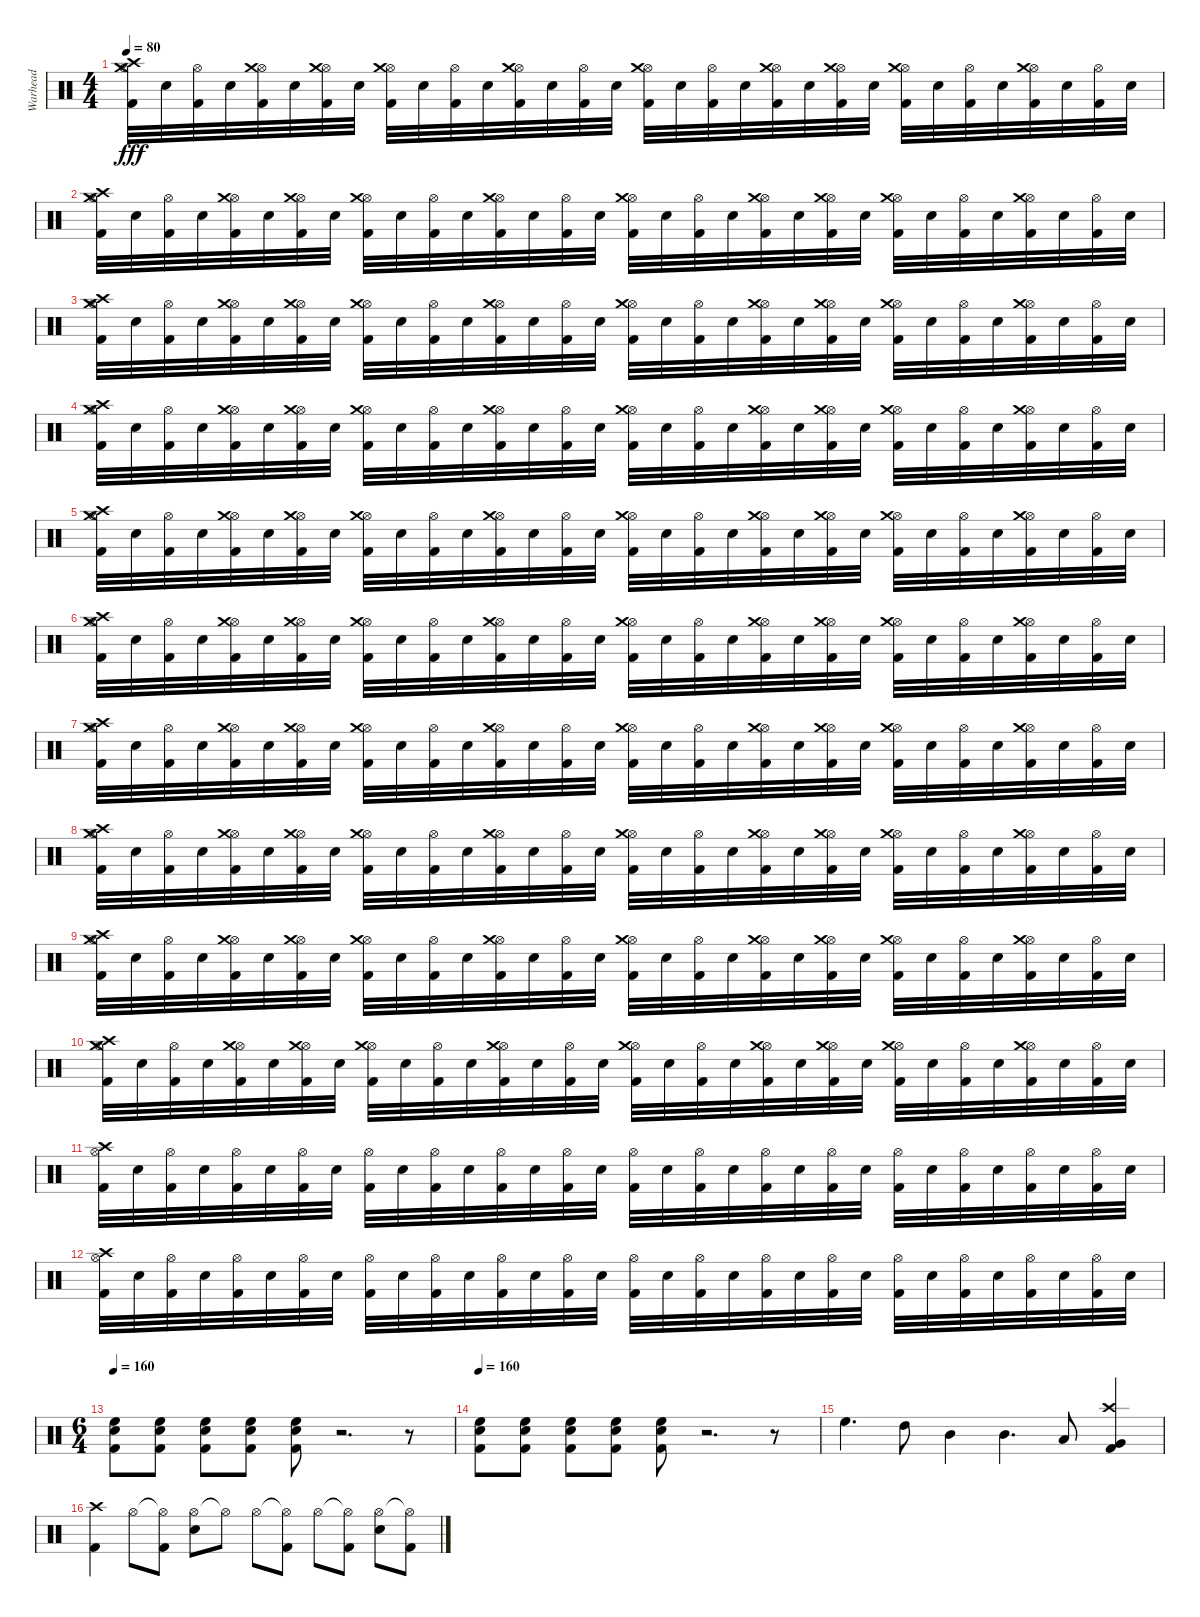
\track ("Warhead" "Warhead") {instrument percussion}
\staff {score}
\articulation defaults
\ts (4 4)
\tempo 80
\clef neutral
\ks c
("Kick (hit) 2" "Crash high (hit)" "Hi-Hat (open)" "Crash medium (hit)").32{dy fff} "Electric Snare (hit)".32 ("Kick (hit) 2" "Hi-Hat (open)").32 "Electric Snare (hit)".32 ("Kick (hit) 2" "Hi-Hat (open)" "Crash medium (hit)").32 "Electric Snare (hit)".32 ("Kick (hit) 2" "Hi-Hat (open)" "Crash medium (hit)").32 "Electric Snare (hit)".32 ("Kick (hit) 2" "Hi-Hat (open)" "Crash medium (hit)").32 "Electric Snare (hit)".32 ("Kick (hit) 2" "Hi-Hat (open)").32 "Electric Snare (hit)".32 ("Kick (hit) 2" "Hi-Hat (open)" "Crash medium (hit)").32 "Electric Snare (hit)".32 ("Kick (hit) 2" "Hi-Hat (open)").32 "Electric Snare (hit)".32 ("Kick (hit) 2" "Hi-Hat (open)" "Crash medium (hit)").32 "Electric Snare (hit)".32 ("Kick (hit) 2" "Hi-Hat (open)").32 "Electric Snare (hit)".32 ("Kick (hit) 2" "Hi-Hat (open)" "Crash medium (hit)").32 "Electric Snare (hit)".32 ("Kick (hit) 2" "Hi-Hat (open)" "Crash medium (hit)").32 "Electric Snare (hit)".32 ("Kick (hit) 2" "Hi-Hat (open)" "Crash medium (hit)").32 "Electric Snare (hit)".32 ("Kick (hit) 2" "Hi-Hat (open)").32 "Electric Snare (hit)".32 ("Kick (hit) 2" "Hi-Hat (open)" "Crash medium (hit)").32 "Electric Snare (hit)".32 ("Kick (hit) 2" "Hi-Hat (open)").32 "Electric Snare (hit)".32 |
("Kick (hit) 2" "Crash high (hit)" "Hi-Hat (open)" "Crash medium (hit)").32 "Electric Snare (hit)".32 ("Kick (hit) 2" "Hi-Hat (open)").32 "Electric Snare (hit)".32 ("Kick (hit) 2" "Hi-Hat (open)" "Crash medium (hit)").32 "Electric Snare (hit)".32 ("Kick (hit) 2" "Hi-Hat (open)" "Crash medium (hit)").32 "Electric Snare (hit)".32 ("Kick (hit) 2" "Hi-Hat (open)" "Crash medium (hit)").32 "Electric Snare (hit)".32 ("Kick (hit) 2" "Hi-Hat (open)").32 "Electric Snare (hit)".32 ("Kick (hit) 2" "Hi-Hat (open)" "Crash medium (hit)").32 "Electric Snare (hit)".32 ("Kick (hit) 2" "Hi-Hat (open)").32 "Electric Snare (hit)".32 ("Kick (hit) 2" "Hi-Hat (open)" "Crash medium (hit)").32 "Electric Snare (hit)".32 ("Kick (hit) 2" "Hi-Hat (open)").32 "Electric Snare (hit)".32 ("Kick (hit) 2" "Hi-Hat (open)" "Crash medium (hit)").32 "Electric Snare (hit)".32 ("Kick (hit) 2" "Hi-Hat (open)" "Crash medium (hit)").32 "Electric Snare (hit)".32 ("Kick (hit) 2" "Hi-Hat (open)" "Crash medium (hit)").32 "Electric Snare (hit)".32 ("Kick (hit) 2" "Hi-Hat (open)").32 "Electric Snare (hit)".32 ("Kick (hit) 2" "Hi-Hat (open)" "Crash medium (hit)").32 "Electric Snare (hit)".32 ("Kick (hit) 2" "Hi-Hat (open)").32 "Electric Snare (hit)".32 |
("Kick (hit) 2" "Crash high (hit)" "Hi-Hat (open)" "Crash medium (hit)").32 "Electric Snare (hit)".32 ("Kick (hit) 2" "Hi-Hat (open)").32 "Electric Snare (hit)".32 ("Kick (hit) 2" "Hi-Hat (open)" "Crash medium (hit)").32 "Electric Snare (hit)".32 ("Kick (hit) 2" "Hi-Hat (open)" "Crash medium (hit)").32 "Electric Snare (hit)".32 ("Kick (hit) 2" "Hi-Hat (open)" "Crash medium (hit)").32 "Electric Snare (hit)".32 ("Kick (hit) 2" "Hi-Hat (open)").32 "Electric Snare (hit)".32 ("Kick (hit) 2" "Hi-Hat (open)" "Crash medium (hit)").32 "Electric Snare (hit)".32 ("Kick (hit) 2" "Hi-Hat (open)").32 "Electric Snare (hit)".32 ("Kick (hit) 2" "Hi-Hat (open)" "Crash medium (hit)").32 "Electric Snare (hit)".32 ("Kick (hit) 2" "Hi-Hat (open)").32 "Electric Snare (hit)".32 ("Kick (hit) 2" "Hi-Hat (open)" "Crash medium (hit)").32 "Electric Snare (hit)".32 ("Kick (hit) 2" "Hi-Hat (open)" "Crash medium (hit)").32 "Electric Snare (hit)".32 ("Kick (hit) 2" "Hi-Hat (open)" "Crash medium (hit)").32 "Electric Snare (hit)".32 ("Kick (hit) 2" "Hi-Hat (open)").32 "Electric Snare (hit)".32 ("Kick (hit) 2" "Hi-Hat (open)" "Crash medium (hit)").32 "Electric Snare (hit)".32 ("Kick (hit) 2" "Hi-Hat (open)").32 "Electric Snare (hit)".32 |
("Kick (hit) 2" "Crash high (hit)" "Hi-Hat (open)" "Crash medium (hit)").32 "Electric Snare (hit)".32 ("Kick (hit) 2" "Hi-Hat (open)").32 "Electric Snare (hit)".32 ("Kick (hit) 2" "Hi-Hat (open)" "Crash medium (hit)").32 "Electric Snare (hit)".32 ("Kick (hit) 2" "Hi-Hat (open)" "Crash medium (hit)").32 "Electric Snare (hit)".32 ("Kick (hit) 2" "Hi-Hat (open)" "Crash medium (hit)").32 "Electric Snare (hit)".32 ("Kick (hit) 2" "Hi-Hat (open)").32 "Electric Snare (hit)".32 ("Kick (hit) 2" "Hi-Hat (open)" "Crash medium (hit)").32 "Electric Snare (hit)".32 ("Kick (hit) 2" "Hi-Hat (open)").32 "Electric Snare (hit)".32 ("Kick (hit) 2" "Hi-Hat (open)" "Crash medium (hit)").32 "Electric Snare (hit)".32 ("Kick (hit) 2" "Hi-Hat (open)").32 "Electric Snare (hit)".32 ("Kick (hit) 2" "Hi-Hat (open)" "Crash medium (hit)").32 "Electric Snare (hit)".32 ("Kick (hit) 2" "Hi-Hat (open)" "Crash medium (hit)").32 "Electric Snare (hit)".32 ("Kick (hit) 2" "Hi-Hat (open)" "Crash medium (hit)").32 "Electric Snare (hit)".32 ("Kick (hit) 2" "Hi-Hat (open)").32 "Electric Snare (hit)".32 ("Kick (hit) 2" "Hi-Hat (open)" "Crash medium (hit)").32 "Electric Snare (hit)".32 ("Kick (hit) 2" "Hi-Hat (open)").32 "Electric Snare (hit)".32 |
("Kick (hit) 2" "Crash high (hit)" "Hi-Hat (open)" "Crash medium (hit)").32 "Electric Snare (hit)".32 ("Kick (hit) 2" "Hi-Hat (open)").32 "Electric Snare (hit)".32 ("Kick (hit) 2" "Hi-Hat (open)" "Crash medium (hit)").32 "Electric Snare (hit)".32 ("Kick (hit) 2" "Hi-Hat (open)" "Crash medium (hit)").32 "Electric Snare (hit)".32 ("Kick (hit) 2" "Hi-Hat (open)" "Crash medium (hit)").32 "Electric Snare (hit)".32 ("Kick (hit) 2" "Hi-Hat (open)").32 "Electric Snare (hit)".32 ("Kick (hit) 2" "Hi-Hat (open)" "Crash medium (hit)").32 "Electric Snare (hit)".32 ("Kick (hit) 2" "Hi-Hat (open)").32 "Electric Snare (hit)".32 ("Kick (hit) 2" "Hi-Hat (open)" "Crash medium (hit)").32 "Electric Snare (hit)".32 ("Kick (hit) 2" "Hi-Hat (open)").32 "Electric Snare (hit)".32 ("Kick (hit) 2" "Hi-Hat (open)" "Crash medium (hit)").32 "Electric Snare (hit)".32 ("Kick (hit) 2" "Hi-Hat (open)" "Crash medium (hit)").32 "Electric Snare (hit)".32 ("Kick (hit) 2" "Hi-Hat (open)" "Crash medium (hit)").32 "Electric Snare (hit)".32 ("Kick (hit) 2" "Hi-Hat (open)").32 "Electric Snare (hit)".32 ("Kick (hit) 2" "Hi-Hat (open)" "Crash medium (hit)").32 "Electric Snare (hit)".32 ("Kick (hit) 2" "Hi-Hat (open)").32 "Electric Snare (hit)".32 |
("Kick (hit) 2" "Crash high (hit)" "Hi-Hat (open)" "Crash medium (hit)").32 "Electric Snare (hit)".32 ("Kick (hit) 2" "Hi-Hat (open)").32 "Electric Snare (hit)".32 ("Kick (hit) 2" "Hi-Hat (open)" "Crash medium (hit)").32 "Electric Snare (hit)".32 ("Kick (hit) 2" "Hi-Hat (open)" "Crash medium (hit)").32 "Electric Snare (hit)".32 ("Kick (hit) 2" "Hi-Hat (open)" "Crash medium (hit)").32 "Electric Snare (hit)".32 ("Kick (hit) 2" "Hi-Hat (open)").32 "Electric Snare (hit)".32 ("Kick (hit) 2" "Hi-Hat (open)" "Crash medium (hit)").32 "Electric Snare (hit)".32 ("Kick (hit) 2" "Hi-Hat (open)").32 "Electric Snare (hit)".32 ("Kick (hit) 2" "Hi-Hat (open)" "Crash medium (hit)").32 "Electric Snare (hit)".32 ("Kick (hit) 2" "Hi-Hat (open)").32 "Electric Snare (hit)".32 ("Kick (hit) 2" "Hi-Hat (open)" "Crash medium (hit)").32 "Electric Snare (hit)".32 ("Kick (hit) 2" "Hi-Hat (open)" "Crash medium (hit)").32 "Electric Snare (hit)".32 ("Kick (hit) 2" "Hi-Hat (open)" "Crash medium (hit)").32 "Electric Snare (hit)".32 ("Kick (hit) 2" "Hi-Hat (open)").32 "Electric Snare (hit)".32 ("Kick (hit) 2" "Hi-Hat (open)" "Crash medium (hit)").32 "Electric Snare (hit)".32 ("Kick (hit) 2" "Hi-Hat (open)").32 "Electric Snare (hit)".32 |
("Kick (hit) 2" "Crash high (hit)" "Hi-Hat (open)" "Crash medium (hit)").32 "Electric Snare (hit)".32 ("Kick (hit) 2" "Hi-Hat (open)").32 "Electric Snare (hit)".32 ("Kick (hit) 2" "Hi-Hat (open)" "Crash medium (hit)").32 "Electric Snare (hit)".32 ("Kick (hit) 2" "Hi-Hat (open)" "Crash medium (hit)").32 "Electric Snare (hit)".32 ("Kick (hit) 2" "Hi-Hat (open)" "Crash medium (hit)").32 "Electric Snare (hit)".32 ("Kick (hit) 2" "Hi-Hat (open)").32 "Electric Snare (hit)".32 ("Kick (hit) 2" "Hi-Hat (open)" "Crash medium (hit)").32 "Electric Snare (hit)".32 ("Kick (hit) 2" "Hi-Hat (open)").32 "Electric Snare (hit)".32 ("Kick (hit) 2" "Hi-Hat (open)" "Crash medium (hit)").32 "Electric Snare (hit)".32 ("Kick (hit) 2" "Hi-Hat (open)").32 "Electric Snare (hit)".32 ("Kick (hit) 2" "Hi-Hat (open)" "Crash medium (hit)").32 "Electric Snare (hit)".32 ("Kick (hit) 2" "Hi-Hat (open)" "Crash medium (hit)").32 "Electric Snare (hit)".32 ("Kick (hit) 2" "Hi-Hat (open)" "Crash medium (hit)").32 "Electric Snare (hit)".32 ("Kick (hit) 2" "Hi-Hat (open)").32 "Electric Snare (hit)".32 ("Kick (hit) 2" "Hi-Hat (open)" "Crash medium (hit)").32 "Electric Snare (hit)".32 ("Kick (hit) 2" "Hi-Hat (open)").32 "Electric Snare (hit)".32 |
("Kick (hit) 2" "Crash high (hit)" "Hi-Hat (open)" "Crash medium (hit)").32 "Electric Snare (hit)".32 ("Kick (hit) 2" "Hi-Hat (open)").32 "Electric Snare (hit)".32 ("Kick (hit) 2" "Hi-Hat (open)" "Crash medium (hit)").32 "Electric Snare (hit)".32 ("Kick (hit) 2" "Hi-Hat (open)" "Crash medium (hit)").32 "Electric Snare (hit)".32 ("Kick (hit) 2" "Hi-Hat (open)" "Crash medium (hit)").32 "Electric Snare (hit)".32 ("Kick (hit) 2" "Hi-Hat (open)").32 "Electric Snare (hit)".32 ("Kick (hit) 2" "Hi-Hat (open)" "Crash medium (hit)").32 "Electric Snare (hit)".32 ("Kick (hit) 2" "Hi-Hat (open)").32 "Electric Snare (hit)".32 ("Kick (hit) 2" "Hi-Hat (open)" "Crash medium (hit)").32 "Electric Snare (hit)".32 ("Kick (hit) 2" "Hi-Hat (open)").32 "Electric Snare (hit)".32 ("Kick (hit) 2" "Hi-Hat (open)" "Crash medium (hit)").32 "Electric Snare (hit)".32 ("Kick (hit) 2" "Hi-Hat (open)" "Crash medium (hit)").32 "Electric Snare (hit)".32 ("Kick (hit) 2" "Hi-Hat (open)" "Crash medium (hit)").32 "Electric Snare (hit)".32 ("Kick (hit) 2" "Hi-Hat (open)").32 "Electric Snare (hit)".32 ("Kick (hit) 2" "Hi-Hat (open)" "Crash medium (hit)").32 "Electric Snare (hit)".32 ("Kick (hit) 2" "Hi-Hat (open)").32 "Electric Snare (hit)".32 |
("Kick (hit) 2" "Crash high (hit)" "Hi-Hat (open)" "Crash medium (hit)").32 "Electric Snare (hit)".32 ("Kick (hit) 2" "Hi-Hat (open)").32 "Electric Snare (hit)".32 ("Kick (hit) 2" "Hi-Hat (open)" "Crash medium (hit)").32 "Electric Snare (hit)".32 ("Kick (hit) 2" "Hi-Hat (open)" "Crash medium (hit)").32 "Electric Snare (hit)".32 ("Kick (hit) 2" "Hi-Hat (open)" "Crash medium (hit)").32 "Electric Snare (hit)".32 ("Kick (hit) 2" "Hi-Hat (open)").32 "Electric Snare (hit)".32 ("Kick (hit) 2" "Hi-Hat (open)" "Crash medium (hit)").32 "Electric Snare (hit)".32 ("Kick (hit) 2" "Hi-Hat (open)").32 "Electric Snare (hit)".32 ("Kick (hit) 2" "Hi-Hat (open)" "Crash medium (hit)").32 "Electric Snare (hit)".32 ("Kick (hit) 2" "Hi-Hat (open)").32 "Electric Snare (hit)".32 ("Kick (hit) 2" "Hi-Hat (open)" "Crash medium (hit)").32 "Electric Snare (hit)".32 ("Kick (hit) 2" "Hi-Hat (open)" "Crash medium (hit)").32 "Electric Snare (hit)".32 ("Kick (hit) 2" "Hi-Hat (open)" "Crash medium (hit)").32 "Electric Snare (hit)".32 ("Kick (hit) 2" "Hi-Hat (open)").32 "Electric Snare (hit)".32 ("Kick (hit) 2" "Hi-Hat (open)" "Crash medium (hit)").32 "Electric Snare (hit)".32 ("Kick (hit) 2" "Hi-Hat (open)").32 "Electric Snare (hit)".32 |
("Kick (hit) 2" "Crash high (hit)" "Hi-Hat (open)" "Crash medium (hit)").32 "Electric Snare (hit)".32 ("Kick (hit) 2" "Hi-Hat (open)").32 "Electric Snare (hit)".32 ("Kick (hit) 2" "Hi-Hat (open)" "Crash medium (hit)").32 "Electric Snare (hit)".32 ("Kick (hit) 2" "Hi-Hat (open)" "Crash medium (hit)").32 "Electric Snare (hit)".32 ("Kick (hit) 2" "Hi-Hat (open)" "Crash medium (hit)").32 "Electric Snare (hit)".32 ("Kick (hit) 2" "Hi-Hat (open)").32 "Electric Snare (hit)".32 ("Kick (hit) 2" "Hi-Hat (open)" "Crash medium (hit)").32 "Electric Snare (hit)".32 ("Kick (hit) 2" "Hi-Hat (open)").32 "Electric Snare (hit)".32 ("Kick (hit) 2" "Hi-Hat (open)" "Crash medium (hit)").32 "Electric Snare (hit)".32 ("Kick (hit) 2" "Hi-Hat (open)").32 "Electric Snare (hit)".32 ("Kick (hit) 2" "Hi-Hat (open)" "Crash medium (hit)").32 "Electric Snare (hit)".32 ("Kick (hit) 2" "Hi-Hat (open)" "Crash medium (hit)").32 "Electric Snare (hit)".32 ("Kick (hit) 2" "Hi-Hat (open)" "Crash medium (hit)").32 "Electric Snare (hit)".32 ("Kick (hit) 2" "Hi-Hat (open)").32 "Electric Snare (hit)".32 ("Kick (hit) 2" "Hi-Hat (open)" "Crash medium (hit)").32 "Electric Snare (hit)".32 ("Kick (hit) 2" "Hi-Hat (open)").32 "Electric Snare (hit)".32 |
("Kick (hit) 2" "Crash high (hit)" "Hi-Hat (open)").32 "Electric Snare (hit)".32 ("Kick (hit) 2" "Hi-Hat (open)").32 "Electric Snare (hit)".32 ("Kick (hit) 2" "Hi-Hat (open)").32 "Electric Snare (hit)".32 ("Kick (hit) 2" "Hi-Hat (open)").32 "Electric Snare (hit)".32 ("Kick (hit) 2" "Hi-Hat (open)").32 "Electric Snare (hit)".32 ("Kick (hit) 2" "Hi-Hat (open)").32 "Electric Snare (hit)".32 ("Kick (hit) 2" "Hi-Hat (open)").32 "Electric Snare (hit)".32 ("Kick (hit) 2" "Hi-Hat (open)").32 "Electric Snare (hit)".32 ("Kick (hit) 2" "Hi-Hat (open)").32 "Electric Snare (hit)".32 ("Kick (hit) 2" "Hi-Hat (open)").32 "Electric Snare (hit)".32 ("Kick (hit) 2" "Hi-Hat (open)").32 "Electric Snare (hit)".32 ("Kick (hit) 2" "Hi-Hat (open)").32 "Electric Snare (hit)".32 ("Kick (hit) 2" "Hi-Hat (open)").32 "Electric Snare (hit)".32 ("Kick (hit) 2" "Hi-Hat (open)").32 "Electric Snare (hit)".32 ("Kick (hit) 2" "Hi-Hat (open)").32 "Electric Snare (hit)".32 ("Kick (hit) 2" "Hi-Hat (open)").32 "Electric Snare (hit)".32 |
("Kick (hit) 2" "Crash high (hit)" "Hi-Hat (open)").32 "Electric Snare (hit)".32 ("Kick (hit) 2" "Hi-Hat (open)").32 "Electric Snare (hit)".32 ("Kick (hit) 2" "Hi-Hat (open)").32 "Electric Snare (hit)".32 ("Kick (hit) 2" "Hi-Hat (open)").32 "Electric Snare (hit)".32 ("Kick (hit) 2" "Hi-Hat (open)").32 "Electric Snare (hit)".32 ("Kick (hit) 2" "Hi-Hat (open)").32 "Electric Snare (hit)".32 ("Kick (hit) 2" "Hi-Hat (open)").32 "Electric Snare (hit)".32 ("Kick (hit) 2" "Hi-Hat (open)").32 "Electric Snare (hit)".32 ("Kick (hit) 2" "Hi-Hat (open)").32 "Electric Snare (hit)".32 ("Kick (hit) 2" "Hi-Hat (open)").32 "Electric Snare (hit)".32 ("Kick (hit) 2" "Hi-Hat (open)").32 "Electric Snare (hit)".32 ("Kick (hit) 2" "Hi-Hat (open)").32 "Electric Snare (hit)".32 ("Kick (hit) 2" "Hi-Hat (open)").32 "Electric Snare (hit)".32 ("Kick (hit) 2" "Hi-Hat (open)").32 "Electric Snare (hit)".32 ("Kick (hit) 2" "Hi-Hat (open)").32 "Electric Snare (hit)".32 ("Kick (hit) 2" "Hi-Hat (open)").32 "Electric Snare (hit)".32 |
\ts (6 4)
\tempo 160
("Kick (hit) 2" "Electric Snare (hit)" "High Floor Tom (hit)").8 ("Kick (hit) 2" "Electric Snare (hit)" "High Floor Tom (hit)").8 ("Kick (hit) 2" "Electric Snare (hit)" "High Floor Tom (hit)").8 ("Kick (hit) 2" "Electric Snare (hit)" "High Floor Tom (hit)").8 ("Kick (hit) 2" "Electric Snare (hit)" "High Floor Tom (hit)").8 r.2{d} r.8 |
\tempo 160
("Kick (hit) 2" "Electric Snare (hit)" "High Floor Tom (hit)").8 ("Kick (hit) 2" "Electric Snare (hit)" "High Floor Tom (hit)").8 ("Kick (hit) 2" "Electric Snare (hit)" "High Floor Tom (hit)").8 ("Kick (hit) 2" "Electric Snare (hit)" "High Floor Tom (hit)").8 ("Kick (hit) 2" "Electric Snare (hit)" "High Floor Tom (hit)").8 r.2{d} r.8 |
"High Floor Tom (hit)".4{d} "High Tom (hit)".8 "Mid Tom (hit)".4 "Mid Tom (hit)".4{d} "Low Tom (hit)".8 ("Very Low Tom (hit)" "Crash high (hit)" "Kick (hit) 2").4 |
("Crash high (hit)" "Kick (hit) 2").4 "Hi-Hat (open)".8 ("Hi-Hat (open)"{t} "Kick (hit) 2").8 ("Hi-Hat (open)" "Electric Snare (hit)").8 "Hi-Hat (open)"{t}.8 "Hi-Hat (open)".8 ("Hi-Hat (open)"{t} "Kick (hit) 2").8 "Hi-Hat (open)".8 ("Hi-Hat (open)"{t} "Kick (hit) 2").8 ("Hi-Hat (open)" "Electric Snare (hit)").8 ("Hi-Hat (open)"{t} "Kick (hit) 2").8
